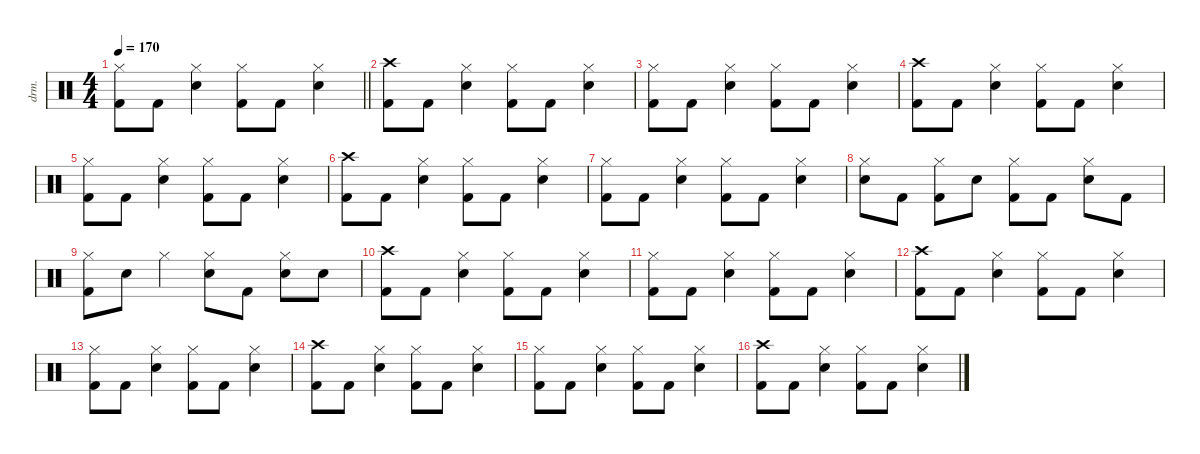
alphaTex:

\defaultSystemsLayout 4
\hideDynamics
\bracketExtendMode nobrackets
\otherSystemsTrackNameOrientation horizontal
\track ("Percussion" "drm.") {instrument percussion}
\staff {score}
\articulation defaults
\ts (4 4)
\tempo 170
\clef neutral
\barLineRight lightlight
\ks c
("Hi-Hat (closed)" "Kick (hit) 2").8{dy f beam Down} "Kick (hit) 2".8{beam Down} ("Hi-Hat (closed)" "Snare (hit) 2").4{beam Down} ("Hi-Hat (closed)" "Kick (hit) 2").8{beam Down} "Kick (hit) 2".8{beam Down} ("Hi-Hat (closed)" "Snare (hit) 2").4{beam Down} |
("Crash high (hit)" "Kick (hit) 2").8{beam Down} "Kick (hit) 2".8{beam Down} ("Hi-Hat (closed)" "Snare (hit) 2").4{beam Down} ("Hi-Hat (closed)" "Kick (hit) 2").8{beam Down} "Kick (hit) 2".8{beam Down} ("Hi-Hat (closed)" "Snare (hit) 2").4{beam Down} |
("Hi-Hat (closed)" "Kick (hit) 2").8{beam Down} "Kick (hit) 2".8{beam Down} ("Hi-Hat (closed)" "Snare (hit) 2").4{beam Down} ("Hi-Hat (closed)" "Kick (hit) 2").8{beam Down} "Kick (hit) 2".8{beam Down} ("Hi-Hat (closed)" "Snare (hit) 2").4{beam Down} |
("Crash high (hit)" "Kick (hit) 2").8{beam Down} "Kick (hit) 2".8{beam Down} ("Hi-Hat (closed)" "Snare (hit) 2").4{beam Down} ("Hi-Hat (closed)" "Kick (hit) 2").8{beam Down} "Kick (hit) 2".8{beam Down} ("Hi-Hat (closed)" "Snare (hit) 2").4{beam Down} |
("Hi-Hat (closed)" "Kick (hit) 2").8{beam Down} "Kick (hit) 2".8{beam Down} ("Hi-Hat (closed)" "Snare (hit) 2").4{beam Down} ("Hi-Hat (closed)" "Kick (hit) 2").8{beam Down} "Kick (hit) 2".8{beam Down} ("Hi-Hat (closed)" "Snare (hit) 2").4{beam Down} |
("Crash high (hit)" "Kick (hit) 2").8{beam Down} "Kick (hit) 2".8{beam Down} ("Hi-Hat (closed)" "Snare (hit) 2").4{beam Down} ("Hi-Hat (closed)" "Kick (hit) 2").8{beam Down} "Kick (hit) 2".8{beam Down} ("Hi-Hat (closed)" "Snare (hit) 2").4{beam Down} |
("Hi-Hat (closed)" "Kick (hit) 2").8{beam Down} "Kick (hit) 2".8{beam Down} ("Hi-Hat (closed)" "Snare (hit) 2").4{beam Down} ("Hi-Hat (closed)" "Kick (hit) 2").8{beam Down} "Kick (hit) 2".8{beam Down} ("Hi-Hat (closed)" "Snare (hit) 2").4{beam Down} |
("Hi-Hat (closed)" "Snare (hit) 2").8{beam Down} "Kick (hit) 2".8{beam Down} ("Hi-Hat (closed)" "Kick (hit) 2").8{beam Down} "Snare (hit) 2".8{beam Down} ("Hi-Hat (closed)" "Kick (hit) 2").8{beam Down} "Kick (hit) 2".8{beam Down} ("Hi-Hat (closed)" "Snare (hit) 2").8{beam Down} "Kick (hit) 2".8{beam Down} |
("Hi-Hat (closed)" "Kick (hit) 2").8{beam Down} "Snare (hit) 2".8{beam Down} "Hi-Hat (closed)".4{beam Down} ("Hi-Hat (closed)" "Snare (hit) 2").8{beam Down} "Kick (hit) 2".8{beam Down} ("Hi-Hat (closed)" "Snare (hit) 2").8{beam Down} "Snare (hit) 2".8{beam Down} |
("Crash high (hit)" "Kick (hit) 2").8{beam Down} "Kick (hit) 2".8{beam Down} ("Hi-Hat (closed)" "Snare (hit) 2").4{beam Down} ("Hi-Hat (closed)" "Kick (hit) 2").8{beam Down} "Kick (hit) 2".8{beam Down} ("Hi-Hat (closed)" "Snare (hit) 2").4{beam Down} |
("Hi-Hat (closed)" "Kick (hit) 2").8{beam Down} "Kick (hit) 2".8{beam Down} ("Hi-Hat (closed)" "Snare (hit) 2").4{beam Down} ("Hi-Hat (closed)" "Kick (hit) 2").8{beam Down} "Kick (hit) 2".8{beam Down} ("Hi-Hat (closed)" "Snare (hit) 2").4{beam Down} |
("Crash high (hit)" "Kick (hit) 2").8{beam Down} "Kick (hit) 2".8{beam Down} ("Hi-Hat (closed)" "Snare (hit) 2").4{beam Down} ("Hi-Hat (closed)" "Kick (hit) 2").8{beam Down} "Kick (hit) 2".8{beam Down} ("Hi-Hat (closed)" "Snare (hit) 2").4{beam Down} |
("Hi-Hat (closed)" "Kick (hit) 2").8{beam Down} "Kick (hit) 2".8{beam Down} ("Hi-Hat (closed)" "Snare (hit) 2").4{beam Down} ("Hi-Hat (closed)" "Kick (hit) 2").8{beam Down} "Kick (hit) 2".8{beam Down} ("Hi-Hat (closed)" "Snare (hit) 2").4{beam Down} |
("Crash high (hit)" "Kick (hit) 2").8{beam Down} "Kick (hit) 2".8{beam Down} ("Hi-Hat (closed)" "Snare (hit) 2").4{beam Down} ("Hi-Hat (closed)" "Kick (hit) 2").8{beam Down} "Kick (hit) 2".8{beam Down} ("Hi-Hat (closed)" "Snare (hit) 2").4{beam Down} |
("Hi-Hat (closed)" "Kick (hit) 2").8{beam Down} "Kick (hit) 2".8{beam Down} ("Hi-Hat (closed)" "Snare (hit) 2").4{beam Down} ("Hi-Hat (closed)" "Kick (hit) 2").8{beam Down} "Kick (hit) 2".8{beam Down} ("Hi-Hat (closed)" "Snare (hit) 2").4{beam Down} |
("Crash high (hit)" "Kick (hit) 2").8{beam Down} "Kick (hit) 2".8{beam Down} ("Hi-Hat (closed)" "Snare (hit) 2").4{beam Down} ("Hi-Hat (closed)" "Kick (hit) 2").8{beam Down} "Kick (hit) 2".8{beam Down} ("Hi-Hat (closed)" "Snare (hit) 2").4{beam Down}
